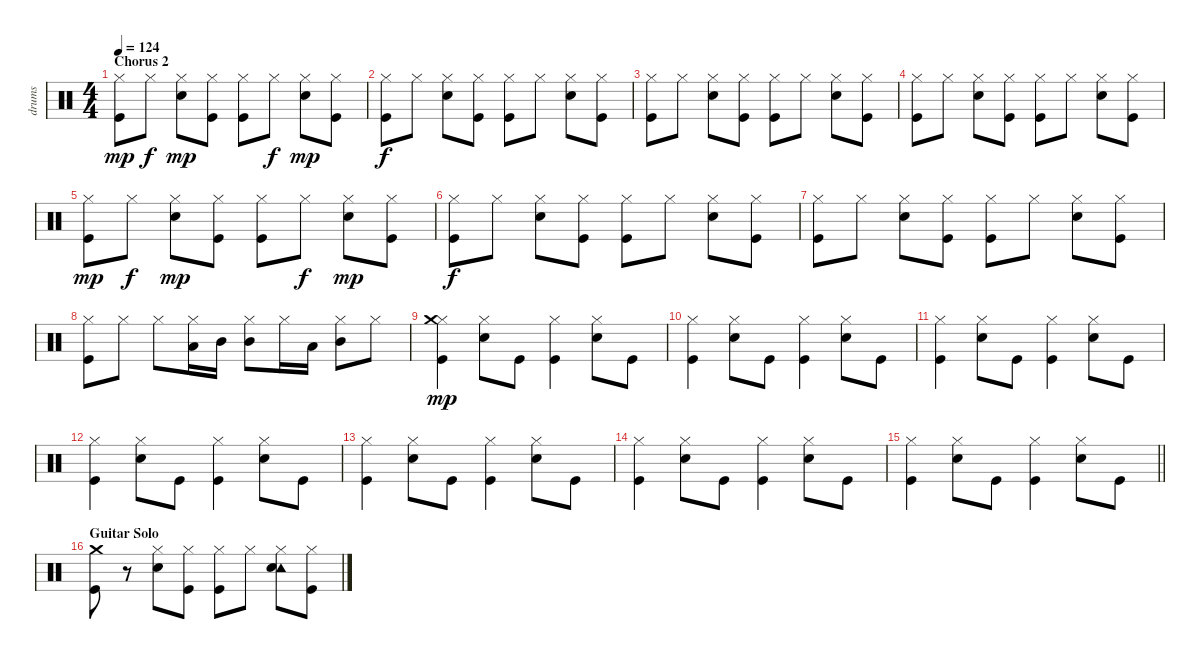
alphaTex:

\track ("drums" "drums") {instrument percussion}
\staff {score}
\articulation defaults
\ts (4 4)
\section ("" "Chorus 2")
\tempo 124
\clef neutral
\ks c
("Hi-Hat (closed)" "Kick (hit)").8{dy mp} "Hi-Hat (closed)".8{dy f} ("Electric Snare (hit)" "Hi-Hat (closed)").8{dy mp} ("Hi-Hat (closed)" "Kick (hit)").8 ("Hi-Hat (closed)" "Kick (hit)").8 "Hi-Hat (closed)".8{dy f} ("Electric Snare (hit)" "Hi-Hat (closed)").8{dy mp} ("Hi-Hat (closed)" "Kick (hit)").8 |
("Hi-Hat (closed)" "Kick (hit)").8{dy f} "Hi-Hat (closed)".8 ("Electric Snare (hit)" "Hi-Hat (closed)").8 ("Hi-Hat (closed)" "Kick (hit)").8 ("Hi-Hat (closed)" "Kick (hit)").8 "Hi-Hat (closed)".8 ("Electric Snare (hit)" "Hi-Hat (closed)").8 ("Hi-Hat (closed)" "Kick (hit)").8 |
("Hi-Hat (closed)" "Kick (hit)").8 "Hi-Hat (closed)".8 ("Electric Snare (hit)" "Hi-Hat (closed)").8 ("Hi-Hat (closed)" "Kick (hit)").8 ("Hi-Hat (closed)" "Kick (hit)").8 "Hi-Hat (closed)".8 ("Electric Snare (hit)" "Hi-Hat (closed)").8 ("Hi-Hat (closed)" "Kick (hit)").8 |
("Hi-Hat (closed)" "Kick (hit)").8 "Hi-Hat (closed)".8 ("Electric Snare (hit)" "Hi-Hat (closed)").8 ("Hi-Hat (closed)" "Kick (hit)").8 ("Hi-Hat (closed)" "Kick (hit)").8 "Hi-Hat (closed)".8 ("Electric Snare (hit)" "Hi-Hat (closed)").8 ("Hi-Hat (closed)" "Kick (hit)").8 |
("Hi-Hat (closed)" "Kick (hit)").8{dy mp} "Hi-Hat (closed)".8{dy f} ("Electric Snare (hit)" "Hi-Hat (closed)").8{dy mp} ("Hi-Hat (closed)" "Kick (hit)").8 ("Hi-Hat (closed)" "Kick (hit)").8 "Hi-Hat (closed)".8{dy f} ("Electric Snare (hit)" "Hi-Hat (closed)").8{dy mp} ("Hi-Hat (closed)" "Kick (hit)").8 |
("Hi-Hat (closed)" "Kick (hit)").8{dy f} "Hi-Hat (closed)".8 ("Electric Snare (hit)" "Hi-Hat (closed)").8 ("Hi-Hat (closed)" "Kick (hit)").8 ("Hi-Hat (closed)" "Kick (hit)").8 "Hi-Hat (closed)".8 ("Electric Snare (hit)" "Hi-Hat (closed)").8 ("Hi-Hat (closed)" "Kick (hit)").8 |
("Hi-Hat (closed)" "Kick (hit)").8 "Hi-Hat (closed)".8 ("Electric Snare (hit)" "Hi-Hat (closed)").8 ("Hi-Hat (closed)" "Kick (hit)").8 ("Hi-Hat (closed)" "Kick (hit)").8 "Hi-Hat (closed)".8 ("Electric Snare (hit)" "Hi-Hat (closed)").8 ("Hi-Hat (closed)" "Kick (hit)").8 |
("Hi-Hat (closed)" "Kick (hit)").8 "Hi-Hat (closed)".8 "Hi-Hat (closed)".8 ("Low Tom (hit)" "Hi-Hat (closed)").16 "Mid Tom (hit)".16 ("Mid Tom (hit)" "Hi-Hat (closed)").8 "Hi-Hat (closed)".16 "Low Tom (hit)".16 ("Mid Tom (hit)" "Hi-Hat (closed)").8 "Hi-Hat (closed)".8 |
("Kick (hit)" "Hi-Hat (closed)" "Crash medium (hit)").4{dy mp} ("Electric Snare (hit)" "Hi-Hat (closed)").8 "Kick (hit)".8 ("Kick (hit)" "Hi-Hat (closed)").4 ("Electric Snare (hit)" "Hi-Hat (closed)").8 "Kick (hit)".8 |
("Kick (hit)" "Hi-Hat (closed)").4 ("Electric Snare (hit)" "Hi-Hat (closed)").8 "Kick (hit)".8 ("Kick (hit)" "Hi-Hat (closed)").4 ("Electric Snare (hit)" "Hi-Hat (closed)").8 "Kick (hit)".8 |
("Kick (hit)" "Hi-Hat (closed)").4 ("Electric Snare (hit)" "Hi-Hat (closed)").8 "Kick (hit)".8 ("Kick (hit)" "Hi-Hat (closed)").4 ("Electric Snare (hit)" "Hi-Hat (closed)").8 "Kick (hit)".8 |
("Kick (hit)" "Hi-Hat (closed)").4 ("Electric Snare (hit)" "Hi-Hat (closed)").8 "Kick (hit)".8 ("Kick (hit)" "Hi-Hat (closed)").4 ("Electric Snare (hit)" "Hi-Hat (closed)").8 "Kick (hit)".8 |
("Kick (hit)" "Hi-Hat (closed)").4 ("Electric Snare (hit)" "Hi-Hat (closed)").8 "Kick (hit)".8 ("Kick (hit)" "Hi-Hat (closed)").4 ("Electric Snare (hit)" "Hi-Hat (closed)").8 "Kick (hit)".8 |
("Kick (hit)" "Hi-Hat (closed)").4 ("Electric Snare (hit)" "Hi-Hat (closed)").8 "Kick (hit)".8 ("Kick (hit)" "Hi-Hat (closed)").4 ("Electric Snare (hit)" "Hi-Hat (closed)").8 "Kick (hit)".8 |
\barLineRight lightlight
("Kick (hit)" "Hi-Hat (closed)").4 ("Electric Snare (hit)" "Hi-Hat (closed)").8 "Kick (hit)".8 ("Kick (hit)" "Hi-Hat (closed)").4 ("Electric Snare (hit)" "Hi-Hat (closed)").8 "Kick (hit)".8 |
\section ("" "Guitar Solo")
("Crash medium (hit)" "Kick (hit)").8 r.8 ("Electric Snare (hit)" "Hi-Hat (closed)").8 ("Hi-Hat (closed)" "Kick (hit)").8 ("Hi-Hat (closed)" "Kick (hit)").8 "Hi-Hat (closed)".8 ("Tambourine (hit)" "Electric Snare (hit)" "Hi-Hat (closed)").8 ("Hi-Hat (closed)" "Kick (hit)").8
